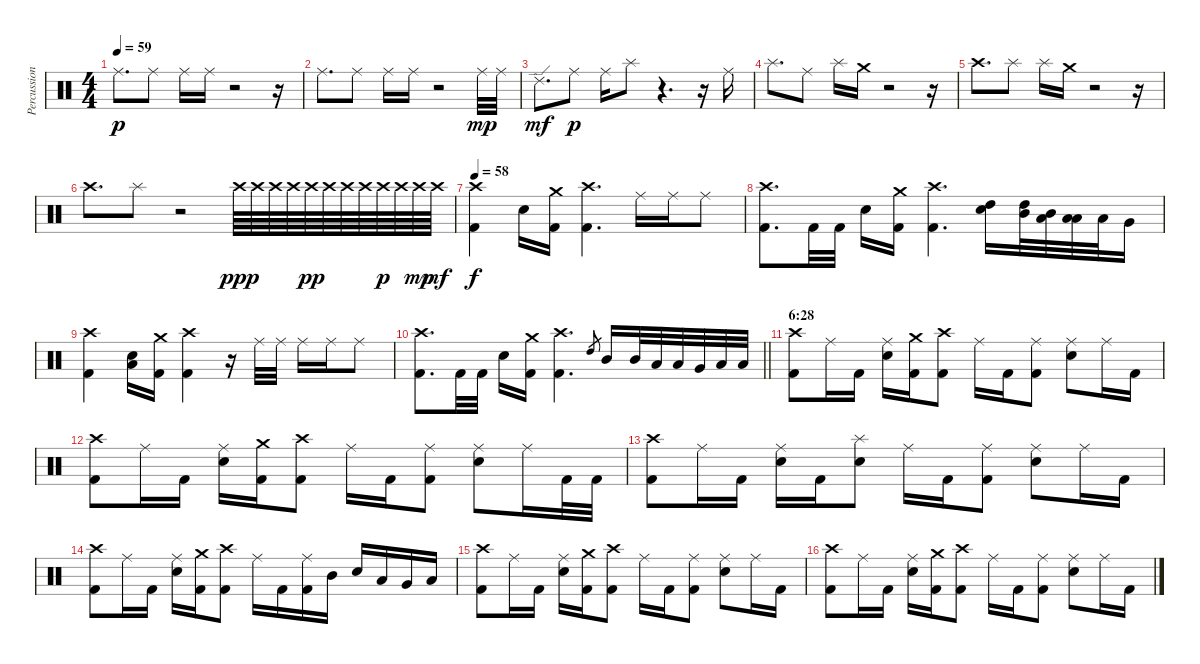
\track ("Percussions" "Percussion") {instrument percussion}
\staff {score}
\articulation defaults
\ts (4 4)
\tempo 59
\clef neutral
\ks c "Ride (middle)".8{d dy p} "Ride (middle)".8 "Ride (middle)".16 "Ride (middle)".16
r.2 r.16 |
"Ride (middle)".8{d} "Ride (middle)".8 "Ride (middle)".16 "Ride (middle)".16 r.2 "Ride (middle)".32{dy mp} "Ride (middle)".32 |
"Ride (edge) 2".8{d dy mf} "Ride (middle)".8{dy p} "Ride (middle)".16 "Splash (hit)".8 r.4{d} r.16 "Ride (middle)".16 |
"Splash (hit)".8{d} "Ride (middle)".8 "Splash (hit)".16 "Crash medium (hit)".16 r.2 r.16 |
"Crash high (hit)".8{d} "Splash (hit)".8 "Splash (hit)".16 "Crash medium (hit)".16 r.2 r.16 |
"Crash high (hit)".8{d} "Splash (hit)".8 r.2 "Crash high (hit)".64{dy ppp} "Crash high (hit)".64 "Crash high (hit)".64 "Crash high (hit)".64 "Crash high (hit)".64{dy pp} "Crash high (hit)".64 "Crash high (hit)".64 "Crash high (hit)".64 "Crash high (hit)".64{dy p} "Crash high (hit)".64 "Crash high (hit)".64{dy mp} "Crash high (hit)".64{dy mf} |
\tempo 58
("Crash high (hit)" "Kick (hit) 2").4{dy f} "Snare (hit) 2".16 ("Crash medium (hit)" "Kick (hit) 2").16 ("Crash high (hit)" "Kick (hit) 2").4{d} "Ride (middle)".16 "Ride (middle)".16 "Ride (middle)".8 |
("Crash high (hit)" "Kick (hit) 2").8{d} "Kick (hit) 2".32 "Kick (hit) 2".32 "Snare (hit) 2".16 ("Crash medium (hit)" "Kick (hit) 2").16 ("Crash high (hit)" "Kick (hit) 2").4{d} ("Snare (hit) 2" "High Tom (hit)").16{bd 120} ("High Tom (hit)" "Mid Tom (hit)").32 ("Low Tom (hit)" "Mid Tom (hit)").32 ("Low Tom (hit)" "Low Tom (hit)").32 "Low Tom (hit)".32 "Very Low Tom (hit)".16 |
("Crash high (hit)" "Kick (hit) 2").4 ("Snare (hit) 2" "Low Floor Tom (hit)").16 ("Crash medium (hit)" "Kick (hit) 2").16 ("Crash high (hit)" "Kick (hit) 2").4 r.16 "Ride (middle)".32 "Ride (middle)".32 "Ride (middle)".16 "Ride (middle)".16 "Ride (middle)".8 |
\barLineRight lightlight
("Crash high (hit)" "Kick (hit) 2").8{d} "Kick (hit) 2".32 "Kick (hit) 2".32 "Snare (hit) 2".16 ("Crash medium (hit)" "Kick (hit) 2").16 ("Crash high (hit)" "Kick (hit) 2").4{d} "High Tom (hit)".8{gr} "Mid Tom (hit)".16 "Mid Tom (hit)".32 "Low Tom (hit)".32 "Low Tom (hit)".32 "Very Low Tom (hit)".32 "Low Floor Tom (hit)".32 "Low Floor Tom (hit)".32 |
\section ("" "6:28")
("Crash high (hit)" "Kick (hit) 2").8 "Ride (middle)".16 "Kick (hit) 2".16 ("Ride (middle)" "Snare (hit) 2").16 ("Crash medium (hit)" "Kick (hit) 2").16 ("Crash high (hit)" "Kick (hit) 2").8 "Ride (middle)".16 "Kick (hit) 2".16 ("Ride (middle)" "Kick (hit) 2").8 ("Ride (middle)" "Snare (hit) 2").8 "Ride (middle)".16 "Kick (hit) 2".16 |
("Crash high (hit)" "Kick (hit) 2").8 "Ride (middle)".16 "Kick (hit) 2".16 ("Ride (middle)" "Snare (hit) 2").16 ("Crash medium (hit)" "Kick (hit) 2").16 ("Crash high (hit)" "Kick (hit) 2").8 "Ride (middle)".16 "Kick (hit) 2".16 ("Ride (middle)" "Kick (hit) 2").8 ("Ride (middle)" "Snare (hit) 2").8 "Ride (middle)".16 "Kick (hit) 2".32 "Kick (hit) 2".32 |
("Crash high (hit)" "Kick (hit) 2").8 "Ride (middle)".16 "Kick (hit) 2".16 ("Ride (middle)" "Snare (hit) 2").16 "Kick (hit) 2".16 ("Splash (hit)" "Snare (hit) 2").8 "Ride (middle)".16 "Kick (hit) 2".16 ("Ride (middle)" "Kick (hit) 2").8 ("Ride (middle)" "Snare (hit) 2").8 "Ride (middle)".16 "Kick (hit) 2".16 |
("Crash high (hit)" "Kick (hit) 2").8 "Ride (middle)".16 "Kick (hit) 2".16 ("Ride (middle)" "Snare (hit) 2").16 ("Crash medium (hit)" "Kick (hit) 2").16 ("Crash high (hit)" "Kick (hit) 2").8 "Ride (middle)".16 "Kick (hit) 2".16 ("Ride (middle)" "Kick (hit) 2").16 "Mid Tom (hit)".16 "Snare (hit) 2".16 "Low Tom (hit)".16 "Very Low Tom (hit)".16 "Low Floor Tom (hit)".16 |
("Crash high (hit)" "Kick (hit) 2").8 "Ride (middle)".16 "Kick (hit) 2".16 ("Ride (middle)" "Snare (hit) 2").16 ("Crash medium (hit)" "Kick (hit) 2").16 ("Crash high (hit)" "Kick (hit) 2").8 "Ride (middle)".16 "Kick (hit) 2".16 ("Ride (middle)" "Kick (hit) 2").8 ("Ride (middle)" "Snare (hit) 2").8 "Ride (middle)".16 "Kick (hit) 2".16 |
("Crash high (hit)" "Kick (hit) 2").8 "Ride (middle)".16 "Kick (hit) 2".16 ("Ride (middle)" "Snare (hit) 2").16 ("Crash medium (hit)" "Kick (hit) 2").16 ("Crash high (hit)" "Kick (hit) 2").8 "Ride (middle)".16 "Kick (hit) 2".16 ("Ride (middle)" "Kick (hit) 2").8 ("Ride (middle)" "Snare (hit) 2").8 "Ride (middle)".16 "Kick (hit) 2".16
